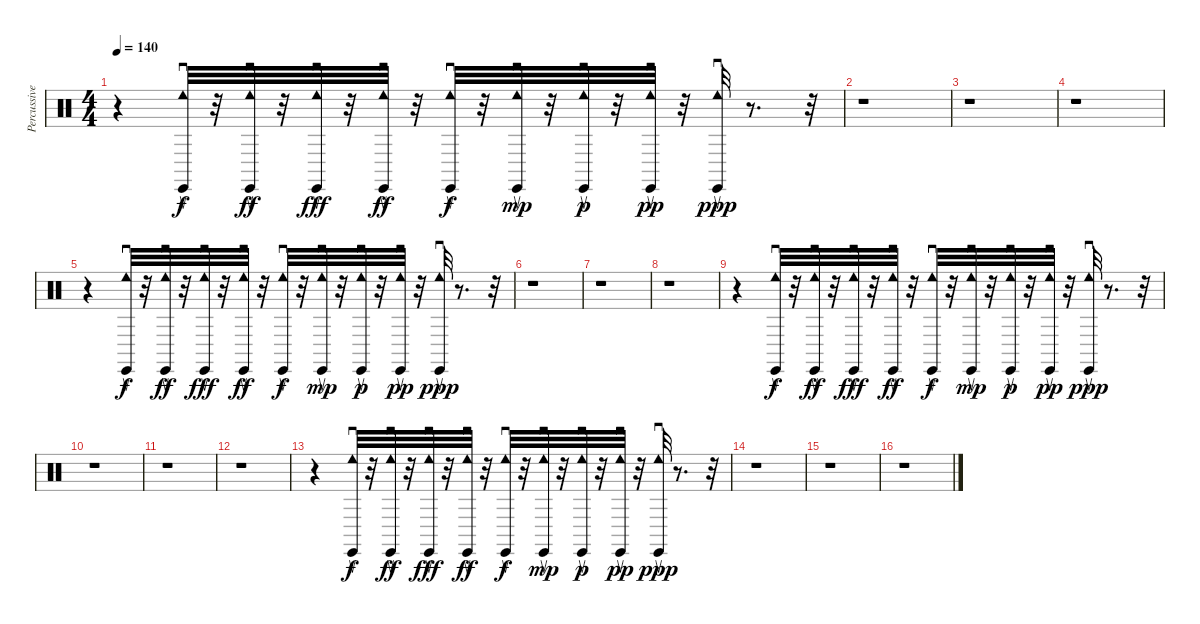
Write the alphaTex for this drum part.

\track ("Percussive Organ" "Percussive") {instrument percussion}
\staff {score}
\articulation defaults
\ts (4 4)
\tempo 140
\clef neutral
\ks c
r.4{dy ppp} ("Cabasa (return)" "Tambourine (roll)").32{dy f} r.32 ("Tambourine (roll)" "Cabasa (return)").32{dy ff} r.32 ("Tambourine (roll)" "Cabasa (return)").32{dy fff} r.32 ("Tambourine (roll)" "Cabasa (return)").32{dy ff} r.32 ("Tambourine (roll)" "Cabasa (return)").32{dy f} r.32 ("Tambourine (roll)" "Cabasa (return)").32{dy mp} r.32 ("Tambourine (roll)" "Cabasa (return)").32{dy p} r.32 ("Tambourine (roll)" "Cabasa (return)").32{dy pp} r.32 ("Cabasa (return)" "Tambourine (roll)").32{dy ppp} r.8{d} r.32 |
r.1 |
r.1 |
r.1 |
r.4 ("Cabasa (return)" "Tambourine (roll)").32{dy f} r.32 ("Tambourine (roll)" "Cabasa (return)").32{dy ff} r.32 ("Tambourine (roll)" "Cabasa (return)").32{dy fff} r.32 ("Tambourine (roll)" "Cabasa (return)").32{dy ff} r.32 ("Tambourine (roll)" "Cabasa (return)").32{dy f} r.32 ("Tambourine (roll)" "Cabasa (return)").32{dy mp} r.32 ("Tambourine (roll)" "Cabasa (return)").32{dy p} r.32 ("Tambourine (roll)" "Cabasa (return)").32{dy pp} r.32 ("Cabasa (return)" "Tambourine (roll)").32{dy ppp} r.8{d} r.32 |
r.1 |
r.1 |
r.1 |
r.4 ("Cabasa (return)" "Tambourine (roll)").32{dy f} r.32 ("Tambourine (roll)" "Cabasa (return)").32{dy ff} r.32 ("Tambourine (roll)" "Cabasa (return)").32{dy fff} r.32 ("Tambourine (roll)" "Cabasa (return)").32{dy ff} r.32 ("Tambourine (roll)" "Cabasa (return)").32{dy f} r.32 ("Tambourine (roll)" "Cabasa (return)").32{dy mp} r.32 ("Tambourine (roll)" "Cabasa (return)").32{dy p} r.32 ("Tambourine (roll)" "Cabasa (return)").32{dy pp} r.32 ("Cabasa (return)" "Tambourine (roll)").32{dy ppp} r.8{d} r.32 |
r.1 |
r.1 |
r.1 |
r.4 ("Cabasa (return)" "Tambourine (roll)").32{dy f} r.32 ("Tambourine (roll)" "Cabasa (return)").32{dy ff} r.32 ("Tambourine (roll)" "Cabasa (return)").32{dy fff} r.32 ("Tambourine (roll)" "Cabasa (return)").32{dy ff} r.32 ("Tambourine (roll)" "Cabasa (return)").32{dy f} r.32 ("Tambourine (roll)" "Cabasa (return)").32{dy mp} r.32 ("Tambourine (roll)" "Cabasa (return)").32{dy p} r.32 ("Tambourine (roll)" "Cabasa (return)").32{dy pp} r.32 ("Cabasa (return)" "Tambourine (roll)").32{dy ppp} r.8{d} r.32 |
r.1 |
r.1 |
r.1
